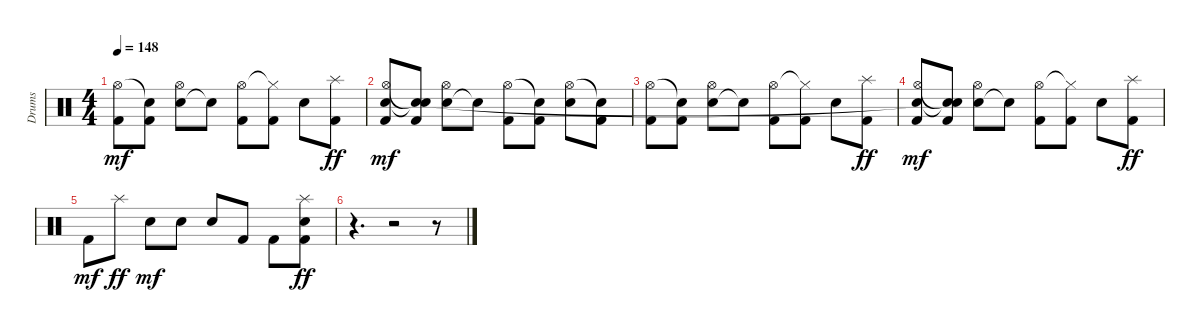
\track ("Drums" "Drums") {instrument percussion}
\staff {score}
\articulation defaults
\ts (4 4)
\tempo 148
\clef neutral
\ks c
("Kick (hit) 2" "Hi-Hat (open)").8{dy mf} ("Kick (hit) 2" "Snare (hit)"{t}).8 ("Snare (hit) 2" "Hi-Hat (open)").8 "Snare (hit)"{t}.8 ("Kick (hit) 2" "Hi-Hat (open)").8 ("Kick (hit) 2" "Hi-Hat (closed)"{t}).8 "Snare (hit) 2".8 ("Kick (hit) 2" "Splash (hit)").8{dy ff} |
("Kick (hit) 2" "Hi-Hat (open)" "Snare (hit)").8{dy mf} ("Kick (hit) 2" "Snare (hit)"{t} "Snare (hit)"{t}).8 ("Snare (hit) 2" "Hi-Hat (open)").8 "Snare (hit)"{t}.8 ("Kick (hit) 2" "Hi-Hat (open)").8 ("Kick (hit) 2" "Snare (hit)"{t}).8 ("Snare (hit) 2" "Hi-Hat (open)").8 ("Kick (hit) 2" "Snare (hit)"{t}).8 |
("Kick (hit) 2" "Hi-Hat (open)").8 ("Kick (hit) 2" "Snare (hit)"{t}).8 ("Snare (hit) 2" "Hi-Hat (open)").8 "Snare (hit)"{t}.8 ("Kick (hit) 2" "Hi-Hat (open)").8 ("Kick (hit) 2" "Hi-Hat (closed)"{t}).8 "Snare (hit) 2".8 ("Kick (hit) 2" "Splash (hit)").8{dy ff} |
("Kick (hit) 2" "Hi-Hat (open)" "Snare (hit)"{t}).8{dy mf} ("Kick (hit) 2" "Snare (hit)"{t} "Snare (hit)"{t}).8 ("Snare (hit) 2" "Hi-Hat (open)").8 "Snare (hit)"{t}.8 ("Kick (hit) 2" "Hi-Hat (open)").8 ("Kick (hit) 2" "Hi-Hat (closed)"{t}).8 "Snare (hit) 2".8 ("Kick (hit) 2" "Splash (hit)").8{dy ff} |
"Kick (hit) 2".8{dy mf} "Splash (hit)".8{dy ff} "Snare (hit) 2".8{dy mf} "Snare (hit) 2".8 "Snare (hit) 2".8 "Kick (hit) 2".8 "Kick (hit) 2".8 ("Kick (hit) 2" "Snare (hit) 2" "Splash (hit)").8{dy ff} |
r.4{d} r.2 r.8
